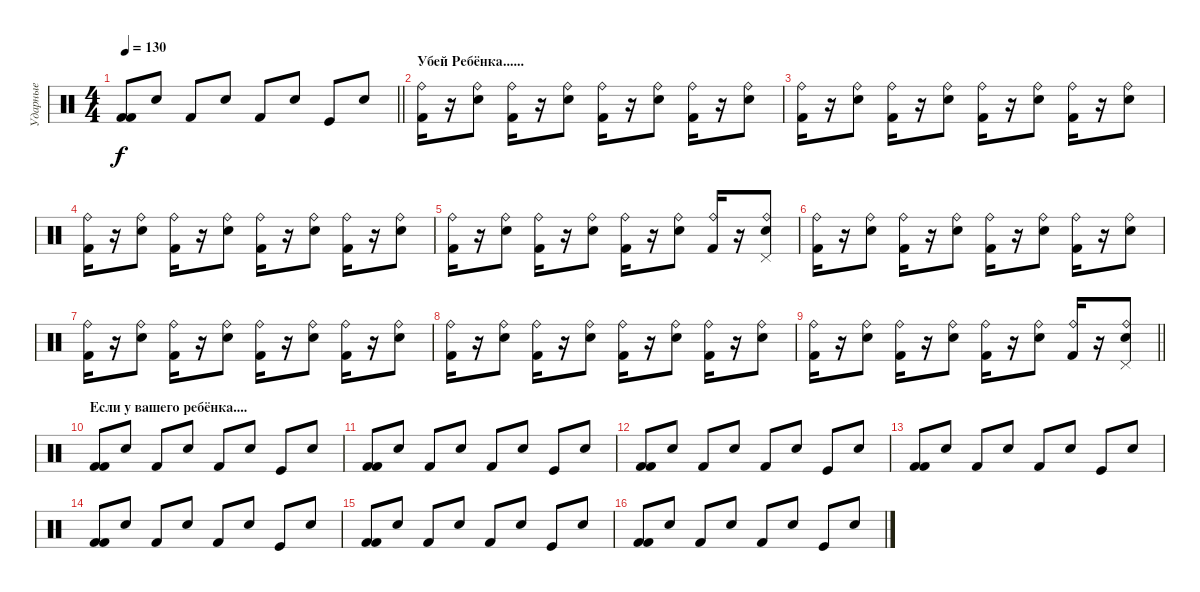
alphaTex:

\track ("Ударные" "Ударные") {instrument percussion}
\staff {score}
\articulation defaults
\ts (4 4)
\tempo 130
\clef neutral
\barLineRight lightlight
\ks c
("Kick (hit) 2" "Kick (hit) 2").8{dy f} "Snare (hit) 2".8 "Kick (hit) 2".8 "Snare (hit) 2".8 "Kick (hit) 2".8 "Snare (hit) 2".8 "Kick (hit)".8 "Snare (hit) 2".8 |
\section ("" "Убей Ребёнка......")
("Ride (bell)" "Kick (hit) 2").16 r.16 ("Ride (bell)" "Snare (hit) 2").8 ("Ride (bell)" "Kick (hit) 2").16 r.16 ("Ride (bell)" "Snare (hit) 2").8 ("Ride (bell)" "Kick (hit) 2").16 r.16 ("Ride (bell)" "Snare (hit) 2").8 ("Ride (bell)" "Kick (hit) 2").16 r.16 ("Ride (bell)" "Snare (hit) 2").8 |
("Ride (bell)" "Kick (hit) 2").16 r.16 ("Ride (bell)" "Snare (hit) 2").8 ("Ride (bell)" "Kick (hit) 2").16 r.16 ("Ride (bell)" "Snare (hit) 2").8 ("Ride (bell)" "Kick (hit) 2").16 r.16 ("Ride (bell)" "Snare (hit) 2").8 ("Ride (bell)" "Kick (hit) 2").16 r.16 ("Ride (bell)" "Snare (hit) 2").8 |
("Ride (bell)" "Kick (hit) 2").16 r.16 ("Ride (bell)" "Snare (hit) 2").8 ("Ride (bell)" "Kick (hit) 2").16 r.16 ("Ride (bell)" "Snare (hit) 2").8 ("Ride (bell)" "Kick (hit) 2").16 r.16 ("Ride (bell)" "Snare (hit) 2").8 ("Ride (bell)" "Kick (hit) 2").16 r.16 ("Ride (bell)" "Snare (hit) 2").8 |
("Ride (bell)" "Kick (hit) 2").16 r.16 ("Ride (bell)" "Snare (hit) 2").8 ("Ride (bell)" "Kick (hit) 2").16 r.16 ("Ride (bell)" "Snare (hit) 2").8 ("Ride (bell)" "Kick (hit) 2").16 r.16 ("Ride (bell)" "Snare (hit) 2").8 ("Ride (bell)" "Kick (hit) 2").16 r.16 ("Ride (bell)" "Snare (hit) 2" "Pedal Hi-Hat (hit)").8 |
("Ride (bell)" "Kick (hit) 2").16 r.16 ("Ride (bell)" "Snare (hit) 2").8 ("Ride (bell)" "Kick (hit) 2").16 r.16 ("Ride (bell)" "Snare (hit) 2").8 ("Ride (bell)" "Kick (hit) 2").16 r.16 ("Ride (bell)" "Snare (hit) 2").8 ("Ride (bell)" "Kick (hit) 2").16 r.16 ("Ride (bell)" "Snare (hit) 2").8 |
("Ride (bell)" "Kick (hit) 2").16 r.16 ("Ride (bell)" "Snare (hit) 2").8 ("Ride (bell)" "Kick (hit) 2").16 r.16 ("Ride (bell)" "Snare (hit) 2").8 ("Ride (bell)" "Kick (hit) 2").16 r.16 ("Ride (bell)" "Snare (hit) 2").8 ("Ride (bell)" "Kick (hit) 2").16 r.16 ("Ride (bell)" "Snare (hit) 2").8 |
("Ride (bell)" "Kick (hit) 2").16 r.16 ("Ride (bell)" "Snare (hit) 2").8 ("Ride (bell)" "Kick (hit) 2").16 r.16 ("Ride (bell)" "Snare (hit) 2").8 ("Ride (bell)" "Kick (hit) 2").16 r.16 ("Ride (bell)" "Snare (hit) 2").8 ("Ride (bell)" "Kick (hit) 2").16 r.16 ("Ride (bell)" "Snare (hit) 2").8 |
\barLineRight lightlight
("Ride (bell)" "Kick (hit) 2").16 r.16 ("Ride (bell)" "Snare (hit) 2").8 ("Ride (bell)" "Kick (hit) 2").16 r.16 ("Ride (bell)" "Snare (hit) 2").8 ("Ride (bell)" "Kick (hit) 2").16 r.16 ("Ride (bell)" "Snare (hit) 2").8 ("Ride (bell)" "Kick (hit) 2").16 r.16 ("Ride (bell)" "Snare (hit) 2" "Pedal Hi-Hat (hit)").8 |
\section ("" "Если у вашего ребёнка....")
("Kick (hit) 2" "Kick (hit) 2").8 "Snare (hit) 2".8 "Kick (hit) 2".8 "Snare (hit) 2".8 "Kick (hit) 2".8 "Snare (hit) 2".8 "Kick (hit)".8 "Snare (hit) 2".8 |
("Kick (hit) 2" "Kick (hit) 2").8 "Snare (hit) 2".8 "Kick (hit) 2".8 "Snare (hit) 2".8 "Kick (hit) 2".8 "Snare (hit) 2".8 "Kick (hit)".8 "Snare (hit) 2".8 |
("Kick (hit) 2" "Kick (hit) 2").8 "Snare (hit) 2".8 "Kick (hit) 2".8 "Snare (hit) 2".8 "Kick (hit) 2".8 "Snare (hit) 2".8 "Kick (hit)".8 "Snare (hit) 2".8 |
("Kick (hit) 2" "Kick (hit) 2").8 "Snare (hit) 2".8 "Kick (hit) 2".8 "Snare (hit) 2".8 "Kick (hit) 2".8 "Snare (hit) 2".8 "Kick (hit)".8 "Snare (hit) 2".8 |
("Kick (hit) 2" "Kick (hit) 2").8 "Snare (hit) 2".8 "Kick (hit) 2".8 "Snare (hit) 2".8 "Kick (hit) 2".8 "Snare (hit) 2".8 "Kick (hit)".8 "Snare (hit) 2".8 |
("Kick (hit) 2" "Kick (hit) 2").8 "Snare (hit) 2".8 "Kick (hit) 2".8 "Snare (hit) 2".8 "Kick (hit) 2".8 "Snare (hit) 2".8 "Kick (hit)".8 "Snare (hit) 2".8 |
("Kick (hit) 2" "Kick (hit) 2").8 "Snare (hit) 2".8 "Kick (hit) 2".8 "Snare (hit) 2".8 "Kick (hit) 2".8 "Snare (hit) 2".8 "Kick (hit)".8 "Snare (hit) 2".8
